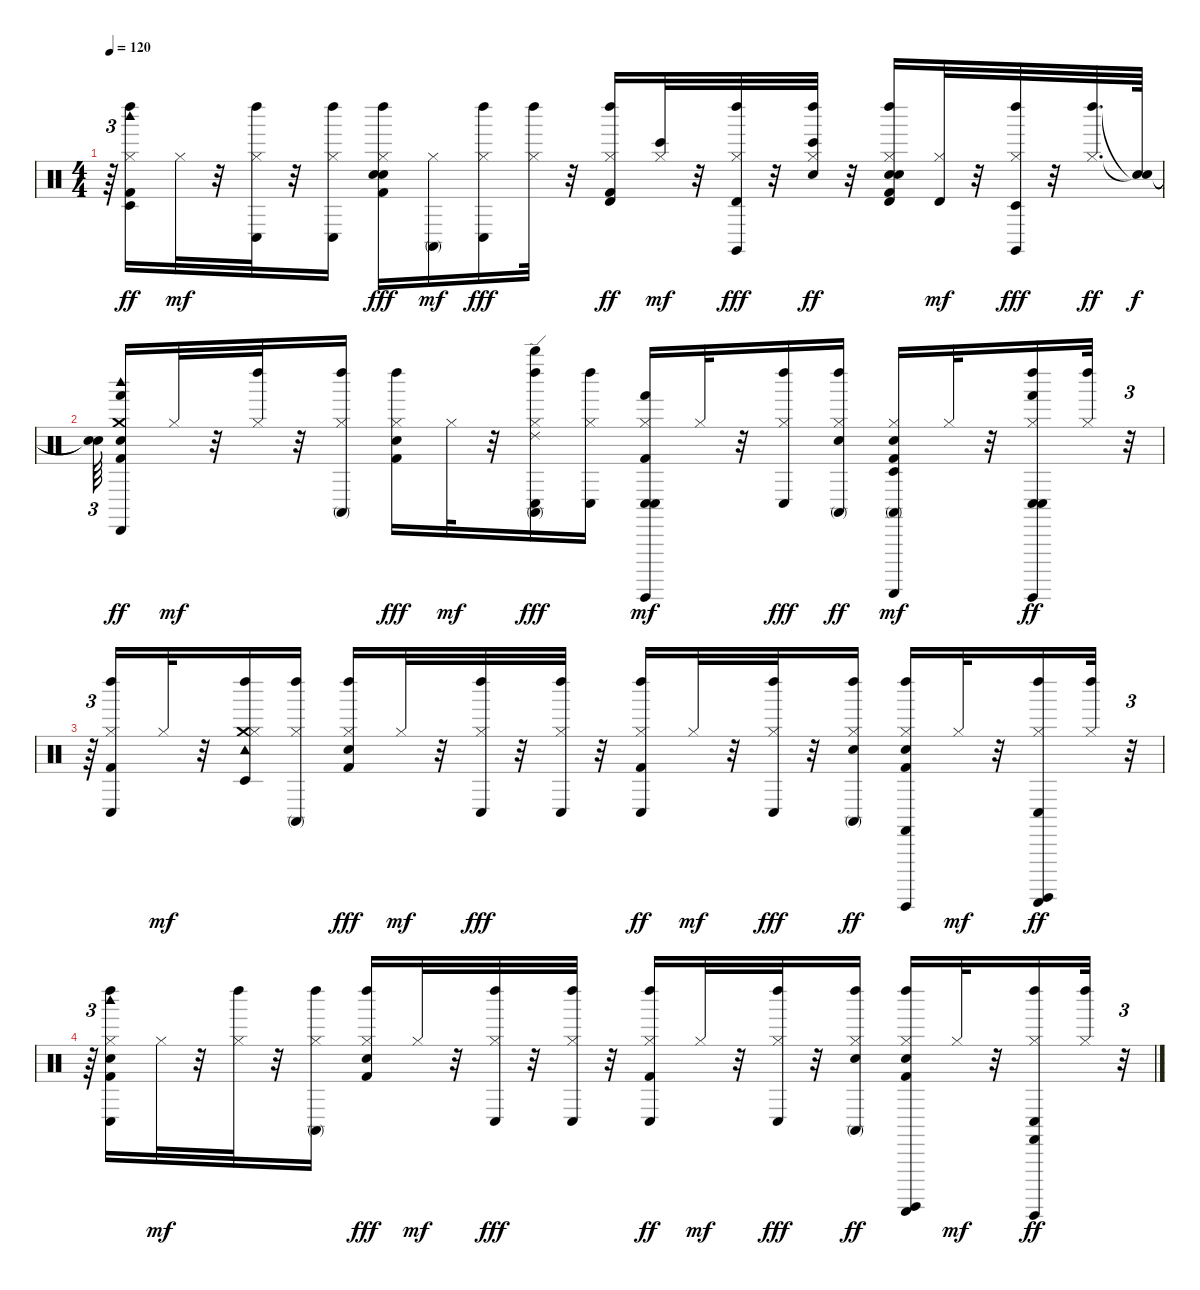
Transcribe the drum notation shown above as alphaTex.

\track "" {instrument percussion}
\staff {score}
\articulation defaults
\ts (4 4)
\tempo 120
\clef neutral
\ks c
r.64{tu (3 2) dy ff} ("Timbale low (hit)" "Kick (hit) 2" "Hi-Hat (closed)" "Left Maraca (hit)" "Woodblock high (hit)").16 "Hi-Hat (closed)".32{dy mf} r.32 ("Conga low (hit)" "Hi-Hat (closed)" "Left Maraca (hit)").32 r.32 ("Conga low (hit)" "Hi-Hat (closed)" "Left Maraca (hit)").16 ("Kick (hit) 2" "Electric Snare (hit)" "Hand Clap (hit)" "Hi-Hat (closed)" "Left Maraca (hit)").16{dy fff} ("Conga high (mute)" "Hi-Hat (closed)").16{dy mf} ("Conga low (hit)" "Hi-Hat (closed)" "Left Maraca (hit)").16{dy fff} ("Hi-Hat (closed)" "Left Maraca (hit)").32 r.32 ("Kick (hit) 2" "Timbale high (hit)" "Hi-Hat (closed)" "Left Maraca (hit)").16{dy ff} ("Bongo High (hit)" "Hi-Hat (closed)").32{dy mf} r.32 ("Timbale high (hit)" "Hi-Hat (closed)" "Left Maraca (hit)" "Claves (hit)").32{dy fff} r.32 ("Electric Snare (hit)" "Bongo High (hit)" "Hi-Hat (closed)" "Left Maraca (hit)").32{dy ff} r.32 ("Kick (hit) 2" "Electric Snare (hit)" "Hand Clap (hit)" "Timbale high (hit)" "Hi-Hat (closed)" "Left Maraca (hit)").16 ("Timbale high (hit)" "Hi-Hat (closed)").32{dy mf} r.32 ("Timbale low (hit)" "Hi-Hat (closed)" "Left Maraca (hit)" "Claves (hit)").32{dy fff} r.32 ("Hi-Hat (closed)" "Left Maraca (hit)").32{d dy ff} ("Snare (hit)"{t} "Snare (hit)"{t}).64{dy f} |
("Snare (hit)"{t} "Snare (hit)"{t}).64{tu (3 2) beam splitsecondary} ("Hand (hit)" "Crash medium (hit)" "Cabasa (hit)" "Woodblock high (hit)" "Snare (hit)" "Kick (hit) 2").16{dy ff} "Hi-Hat (closed)".32{dy mf} r.32 ("Hi-Hat (closed)" "Left Maraca (hit)").32 r.32 ("Conga high (mute)" "Hi-Hat (closed)" "Left Maraca (hit)").16 ("Kick (hit) 2" "Electric Snare (hit)" "Hi-Hat (closed)" "Left Maraca (hit)").16{dy fff} "Hi-Hat (closed)".32{dy mf} r.32 ("Conga high (mute)" "Ride (edge) 2" "Whistle high (hit)" "Conga low (hit)" "Hi-Hat (closed)" "Left Maraca (hit)").16{dy fff} ("Conga low (hit)" "Hi-Hat (closed)" "Left Maraca (hit)").16 ("Conga low (hit)" "Hand (hit)" "Guiro (hit)" "Kick (hit) 2" "Conga low (hit)" "Hi-Hat (closed)").16{dy mf} "Hi-Hat (closed)".32 r.32 ("Conga low (hit)" "Hi-Hat (closed)" "Left Maraca (hit)").16{dy fff} ("Electric Snare (hit)" "Conga high (mute)" "Hi-Hat (closed)" "Left Maraca (hit)").16{dy ff} ("Timbale low (hit)" "Conga high (mute)" "Guiro (scrap-return)" "Kick (hit) 2" "Electric Snare (hit)" "Hi-Hat (closed)").16{dy mf} "Hi-Hat (closed)".32 r.32 ("Conga low (hit)" "Hand (hit)" "Guiro (hit)" "Conga low (hit)" "Hi-Hat (closed)" "Left Maraca (hit)").16{dy ff} ("Hi-Hat (closed)" "Left Maraca (hit)").32 r.32{tu (3 2)} |
r.64{tu (3 2)} ("Kick (hit) 2" "Conga low (hit)" "Hi-Hat (closed)" "Left Maraca (hit)").16 "Hi-Hat (closed)".32{dy mf} r.32 ("Crash medium (hit)" "Tambourine (hit)" "Timbale low (hit)" "Hi-Hat (closed)" "Left Maraca (hit)").16 ("Conga high (mute)" "Hi-Hat (closed)" "Left Maraca (hit)").16 ("Kick (hit) 2" "Electric Snare (hit)" "Hi-Hat (closed)" "Left Maraca (hit)").16{dy fff} "Hi-Hat (closed)".32{dy mf} r.32 ("Conga low (hit)" "Hi-Hat (closed)" "Left Maraca (hit)").32{dy fff} r.32 ("Conga low (hit)" "Hi-Hat (closed)" "Left Maraca (hit)").32 r.32 ("Kick (hit) 2" "Conga low (hit)" "Hi-Hat (closed)" "Left Maraca (hit)").16{dy ff} "Hi-Hat (closed)".32{dy mf} r.32 ("Conga low (hit)" "Hi-Hat (closed)" "Left Maraca (hit)").32{dy fff} r.32 ("Electric Snare (hit)" "Conga high (mute)" "Hi-Hat (closed)" "Left Maraca (hit)").16{dy ff} ("Guiro (hit)" "Castanets (hit)" "Kick (hit) 2" "Electric Snare (hit)" "Hi-Hat (closed)" "Left Maraca (hit)").16 "Hi-Hat (closed)".32{dy mf} r.32 ("Guiro (scrap-return)" "Surdo (hit)" "Conga low (hit)" "Hi-Hat (closed)" "Left Maraca (hit)").16{dy ff} ("Hi-Hat (closed)" "Left Maraca (hit)").32 r.32{tu (3 2)} |
r.64{tu (3 2)} ("Woodblock high (hit)" "Snare (hit)" "Kick (hit) 2" "Conga low (hit)" "Hi-Hat (closed)" "Left Maraca (hit)").16 "Hi-Hat (closed)".32{dy mf} r.32 ("Hi-Hat (closed)" "Left Maraca (hit)").32 r.32 ("Conga high (mute)" "Hi-Hat (closed)" "Left Maraca (hit)").16 ("Kick (hit) 2" "Electric Snare (hit)" "Hi-Hat (closed)" "Left Maraca (hit)").16{dy fff} "Hi-Hat (closed)".32{dy mf} r.32 ("Conga low (hit)" "Hi-Hat (closed)" "Left Maraca (hit)").32{dy fff} r.32 ("Conga low (hit)" "Hi-Hat (closed)" "Left Maraca (hit)").32 r.32 ("Kick (hit) 2" "Conga low (hit)" "Hi-Hat (closed)" "Left Maraca (hit)").16{dy ff} "Hi-Hat (closed)".32{dy mf} r.32 ("Conga low (hit)" "Hi-Hat (closed)" "Left Maraca (hit)").32{dy fff} r.32 ("Electric Snare (hit)" "Conga high (mute)" "Hi-Hat (closed)" "Left Maraca (hit)").16{dy ff} ("Guiro (scrap-return)" "Surdo (hit)" "Kick (hit) 2" "Electric Snare (hit)" "Hi-Hat (closed)" "Left Maraca (hit)").16 "Hi-Hat (closed)".32{dy mf} r.32 ("Guiro (hit)" "Castanets (hit)" "Conga low (hit)" "Hi-Hat (closed)" "Left Maraca (hit)").16{dy ff} ("Hi-Hat (closed)" "Left Maraca (hit)").32 r.32{tu (3 2)}
